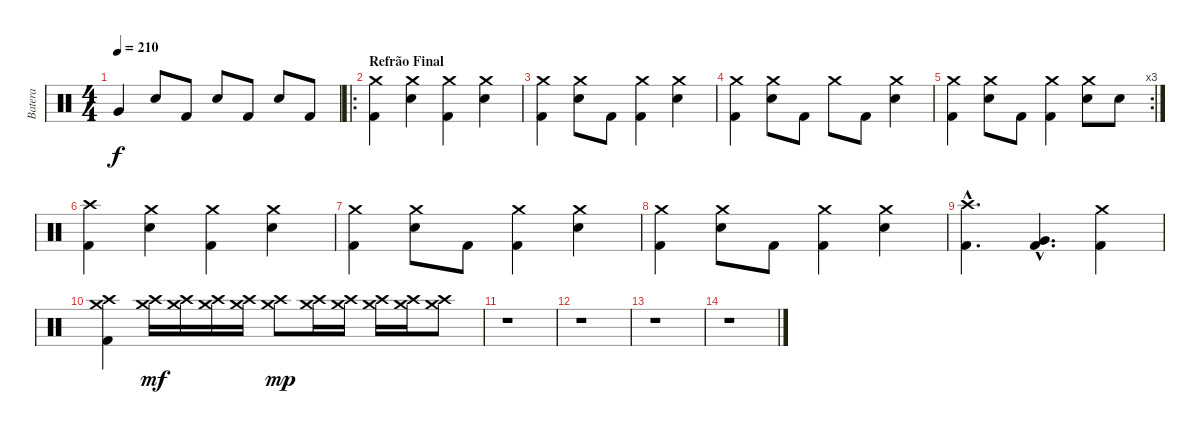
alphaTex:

\track ("Batera" "Batera") {instrument percussion}
\staff {score}
\articulation defaults
\ts (4 4)
\tempo 210
\clef neutral
\ks c "Very Low Tom (hit)".4{dy f} "Electric Snare (hit)".8 "Kick (hit) 2".8 "Electric Snare (hit)".8 "Kick (hit) 2".8 "Electric Snare (hit)".8 "Kick (hit) 2".8
|
\ro
\section ("" "Refrão Final")
("Crash medium (hit)" "Kick (hit) 2").4 ("Crash medium (hit)" "Electric Snare (hit)").4 ("Crash medium (hit)" "Kick (hit) 2").4 ("Crash medium (hit)" "Electric Snare (hit)").4 |
("Crash medium (hit)" "Kick (hit) 2").4 ("Crash medium (hit)" "Electric Snare (hit)").8 "Kick (hit) 2".8 ("Crash medium (hit)" "Kick (hit) 2").4 ("Crash medium (hit)" "Electric Snare (hit)").4 |
("Crash medium (hit)" "Kick (hit) 2").4 ("Crash medium (hit)" "Electric Snare (hit)").8 "Kick (hit) 2".8 "Crash medium (hit)".8 "Kick (hit) 2".8 ("Crash medium (hit)" "Electric Snare (hit)").4 |
\rc 3
("Crash medium (hit)" "Kick (hit) 2").4 ("Crash medium (hit)" "Electric Snare (hit)").8 "Kick (hit) 2".8 ("Crash medium (hit)" "Kick (hit) 2").4 ("Crash medium (hit)" "Electric Snare (hit)").8 "Electric Snare (hit)".8 |
("Crash high (hit)" "Kick (hit) 2").4 ("Crash medium (hit)" "Electric Snare (hit)").4 ("Crash medium (hit)" "Kick (hit) 2").4 ("Crash medium (hit)" "Electric Snare (hit)").4 |
("Crash medium (hit)" "Kick (hit) 2").4 ("Crash medium (hit)" "Electric Snare (hit)").8 "Kick (hit) 2".8 ("Crash medium (hit)" "Kick (hit) 2").4 ("Crash medium (hit)" "Electric Snare (hit)").4 |
("Crash medium (hit)" "Kick (hit) 2").4 ("Crash medium (hit)" "Electric Snare (hit)").8 "Kick (hit) 2".8 ("Crash medium (hit)" "Kick (hit) 2").4 ("Crash medium (hit)" "Electric Snare (hit)").4 |
("Crash high (hit)"{hac} "Kick (hit) 2"{hac}).4{d} ("Very Low Tom (hit)"{hac} "Kick (hit) 2"{hac}).4{d} ("Crash medium (hit)" "Kick (hit) 2").4 |
("Crash medium (hit)" "Crash high (hit)" "Kick (hit) 2").4 ("Crash medium (hit)" "Crash high (hit)").16{dy mf} ("Crash medium (hit)" "Crash high (hit)").16 ("Crash medium (hit)" "Crash high (hit)").16 ("Crash medium (hit)" "Crash high (hit)").16 ("Crash medium (hit)" "Crash high (hit)").8{dy mp} ("Crash medium (hit)" "Crash high (hit)").16 ("Crash medium (hit)" "Crash high (hit)").16 ("Crash medium (hit)" "Crash high (hit)").16 ("Crash medium (hit)" "Crash high (hit)").16 ("Crash medium (hit)" "Crash high (hit)").8 |
r.1 |
r.1 |
r.1 |
r.1
